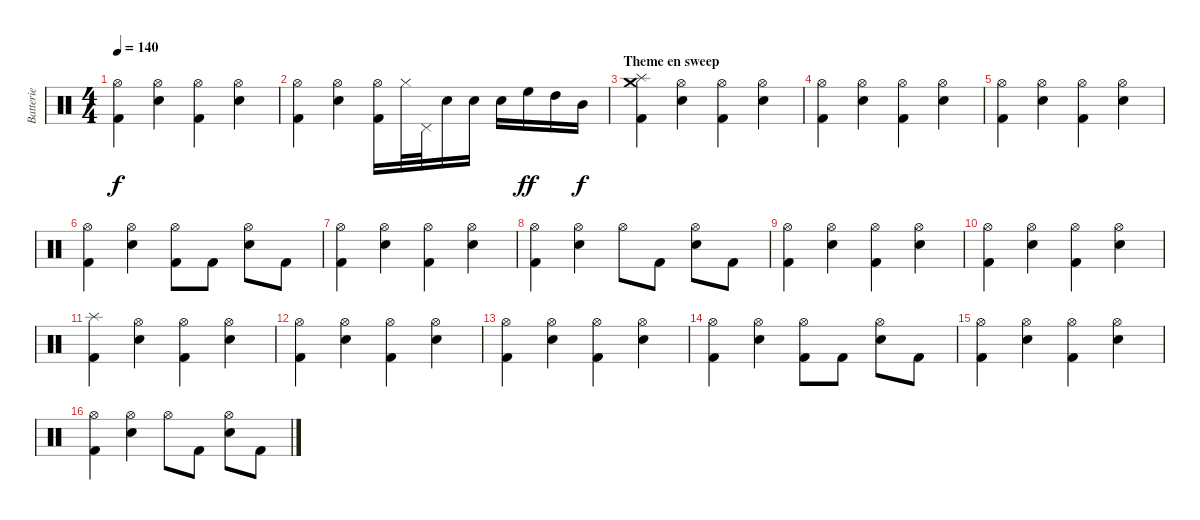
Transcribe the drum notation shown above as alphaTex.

\track ("Batterie" "Batterie") {instrument percussion}
\staff {score}
\articulation defaults
\ts (4 4)
\tempo 140
\clef neutral
\ks c
("Hi-Hat (open)" "Kick (hit) 2").4{dy f} ("Snare (hit) 2" "Hi-Hat (open)").4 ("Hi-Hat (open)" "Kick (hit) 2").4 ("Hi-Hat (open)" "Snare (hit) 2").4 |
("Kick (hit) 2" "Hi-Hat (open)").4 ("Hi-Hat (open)" "Snare (hit) 2").4 ("Hi-Hat (open)" "Kick (hit) 2").16 "Hi-Hat (closed)".32 "Pedal Hi-Hat (hit)".32 "Snare (hit) 2".16 "Snare (hit) 2".16 "Snare (hit) 2".16 "High Floor Tom (hit)".16{dy ff} "High Tom (hit)".16 "Mid Tom (hit)".16{dy f} |
\section ("" "Theme en sweep")
("Crash medium (hit)" "Kick (hit) 2" "Splash (hit)").4 ("Snare (hit) 2" "Hi-Hat (open)").4 ("Kick (hit) 2" "Hi-Hat (open)").4 ("Snare (hit) 2" "Hi-Hat (open)").4 |
("Kick (hit) 2" "Hi-Hat (open)").4 ("Snare (hit) 2" "Hi-Hat (open)").4 ("Kick (hit) 2" "Hi-Hat (open)").4 ("Snare (hit) 2" "Hi-Hat (open)").4 |
("Kick (hit) 2" "Hi-Hat (open)").4 ("Snare (hit) 2" "Hi-Hat (open)").4 ("Hi-Hat (open)" "Kick (hit) 2").4 ("Snare (hit) 2" "Hi-Hat (open)").4 |
("Hi-Hat (open)" "Kick (hit) 2").4 ("Hi-Hat (open)" "Snare (hit) 2").4 ("Kick (hit) 2" "Hi-Hat (open)").8 "Kick (hit) 2".8 ("Hi-Hat (open)" "Snare (hit) 2").8 "Kick (hit) 2".8 |
("Kick (hit) 2" "Hi-Hat (open)").4 ("Hi-Hat (open)" "Snare (hit) 2").4 ("Hi-Hat (open)" "Kick (hit) 2").4 ("Hi-Hat (open)" "Snare (hit) 2").4 |
("Hi-Hat (open)" "Kick (hit) 2").4 ("Snare (hit) 2" "Hi-Hat (open)").4 "Hi-Hat (open)".8 "Kick (hit) 2".8 ("Snare (hit) 2" "Hi-Hat (open)").8 "Kick (hit) 2".8 |
("Hi-Hat (open)" "Kick (hit) 2").4 ("Snare (hit) 2" "Hi-Hat (open)").4 ("Kick (hit) 2" "Hi-Hat (open)").4 ("Hi-Hat (open)" "Snare (hit) 2").4 |
("Kick (hit) 2" "Hi-Hat (open)").4 ("Snare (hit) 2" "Hi-Hat (open)").4 ("Hi-Hat (open)" "Kick (hit) 2").4 ("Snare (hit) 2" "Hi-Hat (open)").4 |
("Splash (hit)" "Kick (hit) 2").4 ("Hi-Hat (open)" "Snare (hit) 2").4 ("Kick (hit) 2" "Hi-Hat (open)").4 ("Snare (hit) 2" "Hi-Hat (open)").4 |
("Kick (hit) 2" "Hi-Hat (open)").4 ("Snare (hit) 2" "Hi-Hat (open)").4 ("Hi-Hat (open)" "Kick (hit) 2").4 ("Hi-Hat (open)" "Snare (hit) 2").4 |
("Hi-Hat (open)" "Kick (hit) 2").4 ("Hi-Hat (open)" "Snare (hit) 2").4 ("Hi-Hat (open)" "Kick (hit) 2").4 ("Hi-Hat (open)" "Snare (hit) 2").4 |
("Kick (hit) 2" "Hi-Hat (open)").4 ("Hi-Hat (open)" "Snare (hit) 2").4 ("Kick (hit) 2" "Hi-Hat (open)").8 "Kick (hit) 2".8 ("Hi-Hat (open)" "Snare (hit) 2").8 "Kick (hit) 2".8 |
("Hi-Hat (open)" "Kick (hit) 2").4 ("Snare (hit) 2" "Hi-Hat (open)").4 ("Kick (hit) 2" "Hi-Hat (open)").4 ("Snare (hit) 2" "Hi-Hat (open)").4 |
("Kick (hit) 2" "Hi-Hat (open)").4 ("Hi-Hat (open)" "Snare (hit) 2").4 "Hi-Hat (open)".8 "Kick (hit) 2".8 ("Snare (hit) 2" "Hi-Hat (open)").8 "Kick (hit) 2".8
